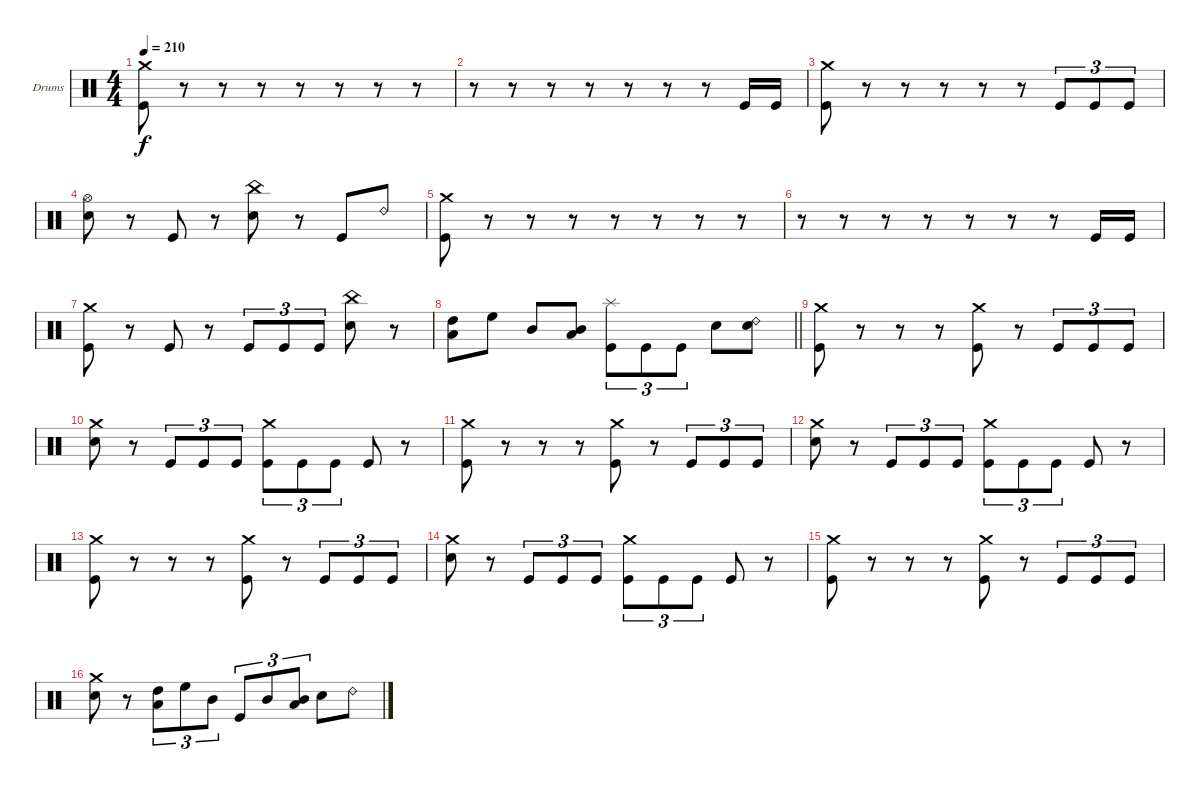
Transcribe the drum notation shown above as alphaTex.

\bracketExtendMode groupsimilarinstruments
\firstSystemTrackNameOrientation horizontal
\otherSystemsTrackNameOrientation horizontal
\track ("Drumkit" "Drums") {instrument percussion}
\staff {score}
\articulation defaults
\ts (4 4)
\beaming (8 2 2 2 2)
\tempo 210
\clef neutral
\ks c
("Crash medium (hit)" "Kick (hit)").8{dy f} r.8 r.8 r.8 r.8 r.8 r.8 r.8 |
r.8 r.8 r.8 r.8 r.8 r.8 r.8 "Kick (hit)".16 "Kick (hit)".16 |
("Crash medium (hit)" "Kick (hit)").8 r.8 r.8 r.8 r.8 r.8 "Kick (hit)".8{tu (3 2)} "Kick (hit)".8{tu (3 2)} "Kick (hit)".8{tu (3 2)} |
("Hi-Hat (open)" "Snare (hit) 2").8 r.8 "Kick (hit)".8 r.8 ("China (hit)" "Snare (hit) 2").8 r.8 "Kick (hit)".8 "Ride (bell) 2".8 |
("Crash medium (hit)" "Kick (hit)").8 r.8 r.8 r.8 r.8 r.8 r.8 r.8 |
r.8 r.8 r.8 r.8 r.8 r.8 r.8 "Kick (hit)".16 "Kick (hit)".16 |
("Crash medium (hit)" "Kick (hit)").8 r.8 "Kick (hit)".8 r.8 "Kick (hit)".8{tu (3 2)} "Kick (hit)".8{tu (3 2)} "Kick (hit)".8{tu (3 2)} ("China (hit)" "Snare (hit) 2").8 r.8 |
\barLineRight lightlight
("High Tom (hit)" "Low Tom (hit)").8 "High Floor Tom (hit)".8 "Mid Tom (hit)".8 ("Mid Tom (hit)" "Low Tom (hit)").8 ("Splash (hit)" "Kick (hit)").8{tu (3 2)} "Kick (hit)".8{tu (3 2)} "Kick (hit)".8{tu (3 2)} "Snare (hit) 2".8 ("Ride (bell) 2" "Snare (hit) 2").8 |
\section ("" "")
("Crash medium (hit)" "Kick (hit)").8 r.8 r.8 r.8 ("Crash medium (hit)" "Kick (hit)").8 r.8 "Kick (hit)".8{tu (3 2)} "Kick (hit)".8{tu (3 2)} "Kick (hit)".8{tu (3 2)} |
("Crash medium (hit)" "Snare (hit) 2").8 r.8 "Kick (hit)".8{tu (3 2)} "Kick (hit)".8{tu (3 2)} "Kick (hit)".8{tu (3 2)} ("Crash medium (hit)" "Kick (hit)").8{tu (3 2)} "Kick (hit)".8{tu (3 2)} "Kick (hit)".8{tu (3 2)} "Kick (hit)".8 r.8 |
("Crash medium (hit)" "Kick (hit)").8 r.8 r.8 r.8 ("Crash medium (hit)" "Kick (hit)").8 r.8 "Kick (hit)".8{tu (3 2)} "Kick (hit)".8{tu (3 2)} "Kick (hit)".8{tu (3 2)} |
("Crash medium (hit)" "Snare (hit) 2").8 r.8 "Kick (hit)".8{tu (3 2)} "Kick (hit)".8{tu (3 2)} "Kick (hit)".8{tu (3 2)} ("Crash medium (hit)" "Kick (hit)").8{tu (3 2)} "Kick (hit)".8{tu (3 2)} "Kick (hit)".8{tu (3 2)} "Kick (hit)".8 r.8 |
("Crash medium (hit)" "Kick (hit)").8 r.8 r.8 r.8 ("Crash medium (hit)" "Kick (hit)").8 r.8 "Kick (hit)".8{tu (3 2)} "Kick (hit)".8{tu (3 2)} "Kick (hit)".8{tu (3 2)} |
("Crash medium (hit)" "Snare (hit) 2").8 r.8 "Kick (hit)".8{tu (3 2)} "Kick (hit)".8{tu (3 2)} "Kick (hit)".8{tu (3 2)} ("Crash medium (hit)" "Kick (hit)").8{tu (3 2)} "Kick (hit)".8{tu (3 2)} "Kick (hit)".8{tu (3 2)} "Kick (hit)".8 r.8 |
("Crash medium (hit)" "Kick (hit)").8 r.8 r.8 r.8 ("Crash medium (hit)" "Kick (hit)").8 r.8 "Kick (hit)".8{tu (3 2)} "Kick (hit)".8{tu (3 2)} "Kick (hit)".8{tu (3 2)} |
("Crash medium (hit)" "Snare (hit) 2").8 r.8 ("High Tom (hit)" "Low Tom (hit)").8{tu (3 2)} "High Floor Tom (hit)".8{tu (3 2)} "Mid Tom (hit)".8{tu (3 2)} "Kick (hit)".8{tu (3 2)} "Mid Tom (hit)".8{tu (3 2)} ("Mid Tom (hit)" "Low Tom (hit)").8{tu (3 2)} "Snare (hit) 2".8 "Ride (bell) 2".8
